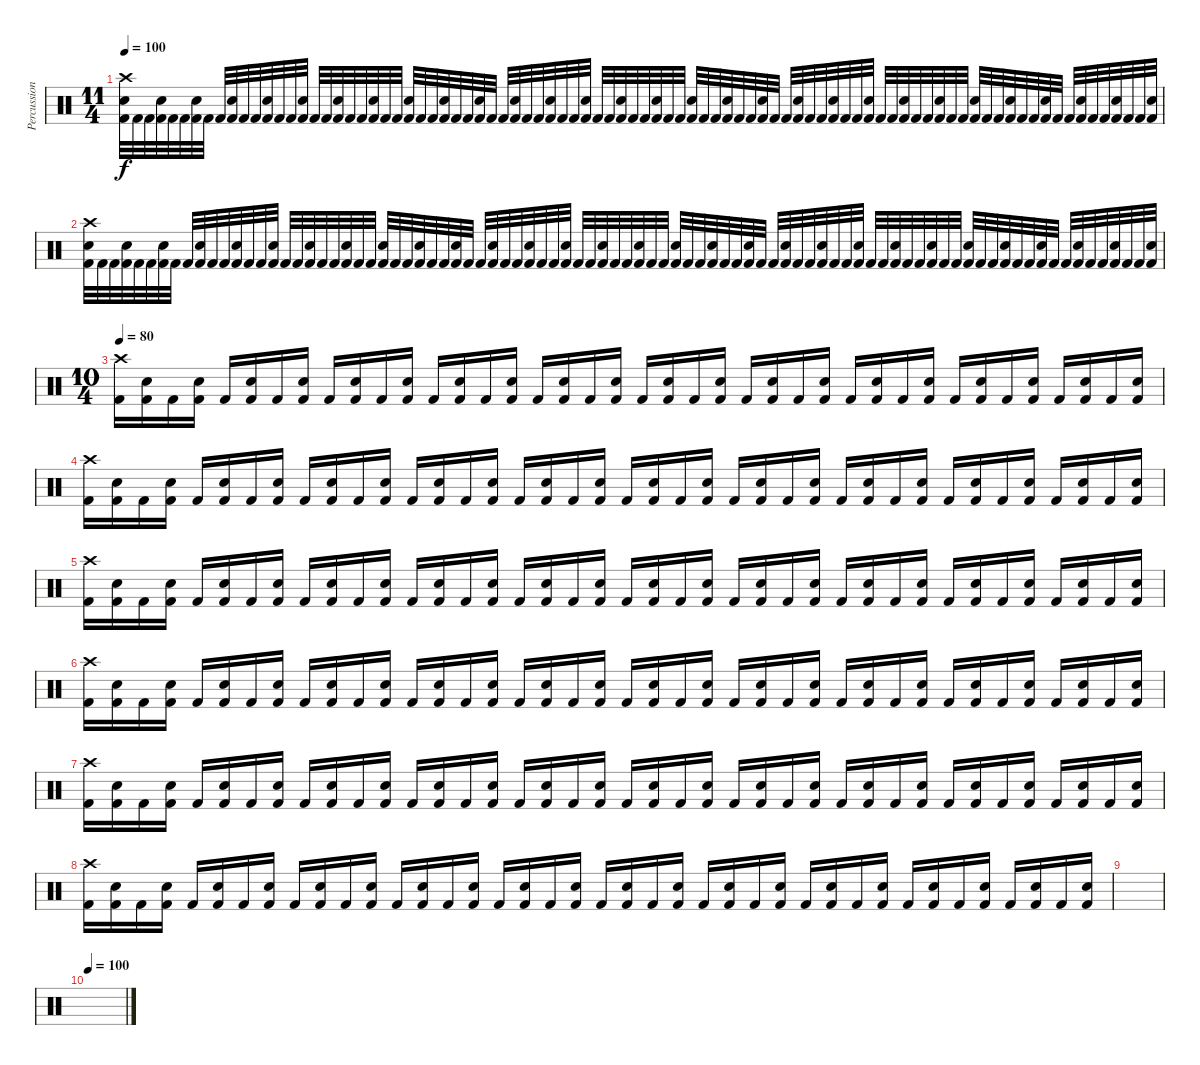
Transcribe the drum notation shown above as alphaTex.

\track ("Percussion" "Percussion") {instrument percussion}
\staff {score}
\articulation defaults
\ts (11 4)
\tempo 100
\clef neutral
\ks c
("Crash high (hit)" "Snare (hit) 2" "Kick (hit) 2").32{dy f} "Kick (hit) 2".32 "Kick (hit) 2".32 ("Snare (hit) 2" "Kick (hit) 2").32 "Kick (hit) 2".32 "Kick (hit) 2".32 ("Snare (hit) 2" "Kick (hit) 2").32 "Kick (hit) 2".32 "Kick (hit) 2".32 ("Snare (hit) 2" "Kick (hit) 2").32 "Kick (hit) 2".32 "Kick (hit) 2".32 ("Snare (hit) 2" "Kick (hit) 2").32 "Kick (hit) 2".32 "Kick (hit) 2".32 ("Snare (hit) 2" "Kick (hit) 2").32 "Kick (hit) 2".32 "Kick (hit) 2".32 ("Snare (hit) 2" "Kick (hit) 2").32 "Kick (hit) 2".32 "Kick (hit) 2".32 ("Snare (hit) 2" "Kick (hit) 2").32 "Kick (hit) 2".32 "Kick (hit) 2".32 ("Snare (hit) 2" "Kick (hit) 2").32 "Kick (hit) 2".32 "Kick (hit) 2".32 ("Snare (hit) 2" "Kick (hit) 2").32 "Kick (hit) 2".32 "Kick (hit) 2".32 ("Snare (hit) 2" "Kick (hit) 2").32 "Kick (hit) 2".32 "Kick (hit) 2".32 ("Snare (hit) 2" "Kick (hit) 2").32 "Kick (hit) 2".32 "Kick (hit) 2".32 ("Snare (hit) 2" "Kick (hit) 2").32 "Kick (hit) 2".32 "Kick (hit) 2".32 ("Snare (hit) 2" "Kick (hit) 2").32 "Kick (hit) 2".32 "Kick (hit) 2".32 ("Snare (hit) 2" "Kick (hit) 2").32 "Kick (hit) 2".32 "Kick (hit) 2".32 ("Snare (hit) 2" "Kick (hit) 2").32 "Kick (hit) 2".32 "Kick (hit) 2".32 ("Snare (hit) 2" "Kick (hit) 2").32 "Kick (hit) 2".32 "Kick (hit) 2".32 ("Snare (hit) 2" "Kick (hit) 2").32 "Kick (hit) 2".32 "Kick (hit) 2".32 ("Snare (hit) 2" "Kick (hit) 2").32 "Kick (hit) 2".32 "Kick (hit) 2".32 ("Snare (hit) 2" "Kick (hit) 2").32 "Kick (hit) 2".32 "Kick (hit) 2".32 ("Snare (hit) 2" "Kick (hit) 2").32 "Kick (hit) 2".32 "Kick (hit) 2".32 ("Snare (hit) 2" "Kick (hit) 2").32 "Kick (hit) 2".32 "Kick (hit) 2".32 ("Snare (hit) 2" "Kick (hit) 2").32 "Kick (hit) 2".32 "Kick (hit) 2".32 ("Snare (hit) 2" "Kick (hit) 2").32 "Kick (hit) 2".32 "Kick (hit) 2".32 ("Snare (hit) 2" "Kick (hit) 2").32 "Kick (hit) 2".32 "Kick (hit) 2".32 ("Snare (hit) 2" "Kick (hit) 2").32 "Kick (hit) 2".32 "Kick (hit) 2".32 ("Snare (hit) 2" "Kick (hit) 2").32 "Kick (hit) 2".32 "Kick (hit) 2".32 ("Snare (hit) 2" "Kick (hit) 2").32 "Kick (hit) 2".32 "Kick (hit) 2".32 ("Snare (hit) 2" "Kick (hit) 2").32 "Kick (hit) 2".32 "Kick (hit) 2".32 ("Snare (hit) 2" "Kick (hit) 2").32 |
("Crash high (hit)" "Snare (hit) 2" "Kick (hit) 2").32 "Kick (hit) 2".32 "Kick (hit) 2".32 ("Snare (hit) 2" "Kick (hit) 2").32 "Kick (hit) 2".32 "Kick (hit) 2".32 ("Snare (hit) 2" "Kick (hit) 2").32 "Kick (hit) 2".32 "Kick (hit) 2".32 ("Snare (hit) 2" "Kick (hit) 2").32 "Kick (hit) 2".32 "Kick (hit) 2".32 ("Snare (hit) 2" "Kick (hit) 2").32 "Kick (hit) 2".32 "Kick (hit) 2".32 ("Snare (hit) 2" "Kick (hit) 2").32 "Kick (hit) 2".32 "Kick (hit) 2".32 ("Snare (hit) 2" "Kick (hit) 2").32 "Kick (hit) 2".32 "Kick (hit) 2".32 ("Snare (hit) 2" "Kick (hit) 2").32 "Kick (hit) 2".32 "Kick (hit) 2".32 ("Snare (hit) 2" "Kick (hit) 2").32 "Kick (hit) 2".32 "Kick (hit) 2".32 ("Snare (hit) 2" "Kick (hit) 2").32 "Kick (hit) 2".32 "Kick (hit) 2".32 ("Snare (hit) 2" "Kick (hit) 2").32 "Kick (hit) 2".32 "Kick (hit) 2".32 ("Snare (hit) 2" "Kick (hit) 2").32 "Kick (hit) 2".32 "Kick (hit) 2".32 ("Snare (hit) 2" "Kick (hit) 2").32 "Kick (hit) 2".32 "Kick (hit) 2".32 ("Snare (hit) 2" "Kick (hit) 2").32 "Kick (hit) 2".32 "Kick (hit) 2".32 ("Snare (hit) 2" "Kick (hit) 2").32 "Kick (hit) 2".32 "Kick (hit) 2".32 ("Snare (hit) 2" "Kick (hit) 2").32 "Kick (hit) 2".32 "Kick (hit) 2".32 ("Snare (hit) 2" "Kick (hit) 2").32 "Kick (hit) 2".32 "Kick (hit) 2".32 ("Snare (hit) 2" "Kick (hit) 2").32 "Kick (hit) 2".32 "Kick (hit) 2".32 ("Snare (hit) 2" "Kick (hit) 2").32 "Kick (hit) 2".32 "Kick (hit) 2".32 ("Snare (hit) 2" "Kick (hit) 2").32 "Kick (hit) 2".32 "Kick (hit) 2".32 ("Snare (hit) 2" "Kick (hit) 2").32 "Kick (hit) 2".32 "Kick (hit) 2".32 ("Snare (hit) 2" "Kick (hit) 2").32 "Kick (hit) 2".32 "Kick (hit) 2".32 ("Snare (hit) 2" "Kick (hit) 2").32 "Kick (hit) 2".32 "Kick (hit) 2".32 ("Snare (hit) 2" "Kick (hit) 2").32 "Kick (hit) 2".32 "Kick (hit) 2".32 ("Snare (hit) 2" "Kick (hit) 2").32 "Kick (hit) 2".32 "Kick (hit) 2".32 ("Snare (hit) 2" "Kick (hit) 2").32 "Kick (hit) 2".32 "Kick (hit) 2".32 ("Snare (hit) 2" "Kick (hit) 2").32 "Kick (hit) 2".32 "Kick (hit) 2".32 ("Snare (hit) 2" "Kick (hit) 2").32 "Kick (hit) 2".32 "Kick (hit) 2".32 ("Snare (hit) 2" "Kick (hit) 2").32 "Kick (hit) 2".32 "Kick (hit) 2".32 ("Snare (hit) 2" "Kick (hit) 2").32 |
\ts (10 4)
\tempo 80
("Crash high (hit)" "Kick (hit) 2").16 ("Snare (hit) 2" "Kick (hit) 2").16 "Kick (hit) 2".16 ("Snare (hit) 2" "Kick (hit) 2").16 "Kick (hit) 2".16 ("Snare (hit) 2" "Kick (hit) 2").16 "Kick (hit) 2".16 ("Snare (hit) 2" "Kick (hit) 2").16 "Kick (hit) 2".16 ("Snare (hit) 2" "Kick (hit) 2").16 "Kick (hit) 2".16 ("Snare (hit) 2" "Kick (hit) 2").16 "Kick (hit) 2".16 ("Snare (hit) 2" "Kick (hit) 2").16 "Kick (hit) 2".16 ("Snare (hit) 2" "Kick (hit) 2").16 "Kick (hit) 2".16 ("Snare (hit) 2" "Kick (hit) 2").16 "Kick (hit) 2".16 ("Snare (hit) 2" "Kick (hit) 2").16 "Kick (hit) 2".16 ("Snare (hit) 2" "Kick (hit) 2").16 "Kick (hit) 2".16 ("Snare (hit) 2" "Kick (hit) 2").16 "Kick (hit) 2".16 ("Snare (hit) 2" "Kick (hit) 2").16 "Kick (hit) 2".16 ("Snare (hit) 2" "Kick (hit) 2").16 "Kick (hit) 2".16 ("Snare (hit) 2" "Kick (hit) 2").16 "Kick (hit) 2".16 ("Snare (hit) 2" "Kick (hit) 2").16 "Kick (hit) 2".16 ("Snare (hit) 2" "Kick (hit) 2").16 "Kick (hit) 2".16 ("Snare (hit) 2" "Kick (hit) 2").16 "Kick (hit) 2".16 ("Snare (hit) 2" "Kick (hit) 2").16 "Kick (hit) 2".16 ("Snare (hit) 2" "Kick (hit) 2").16 |
("Crash high (hit)" "Kick (hit) 2").16 ("Snare (hit) 2" "Kick (hit) 2").16 "Kick (hit) 2".16 ("Snare (hit) 2" "Kick (hit) 2").16 "Kick (hit) 2".16 ("Snare (hit) 2" "Kick (hit) 2").16 "Kick (hit) 2".16 ("Snare (hit) 2" "Kick (hit) 2").16 "Kick (hit) 2".16 ("Snare (hit) 2" "Kick (hit) 2").16 "Kick (hit) 2".16 ("Snare (hit) 2" "Kick (hit) 2").16 "Kick (hit) 2".16 ("Snare (hit) 2" "Kick (hit) 2").16 "Kick (hit) 2".16 ("Snare (hit) 2" "Kick (hit) 2").16 "Kick (hit) 2".16 ("Snare (hit) 2" "Kick (hit) 2").16 "Kick (hit) 2".16 ("Snare (hit) 2" "Kick (hit) 2").16 "Kick (hit) 2".16 ("Snare (hit) 2" "Kick (hit) 2").16 "Kick (hit) 2".16 ("Snare (hit) 2" "Kick (hit) 2").16 "Kick (hit) 2".16 ("Snare (hit) 2" "Kick (hit) 2").16 "Kick (hit) 2".16 ("Snare (hit) 2" "Kick (hit) 2").16 "Kick (hit) 2".16 ("Snare (hit) 2" "Kick (hit) 2").16 "Kick (hit) 2".16 ("Snare (hit) 2" "Kick (hit) 2").16 "Kick (hit) 2".16 ("Snare (hit) 2" "Kick (hit) 2").16 "Kick (hit) 2".16 ("Snare (hit) 2" "Kick (hit) 2").16 "Kick (hit) 2".16 ("Snare (hit) 2" "Kick (hit) 2").16 "Kick (hit) 2".16 ("Snare (hit) 2" "Kick (hit) 2").16 |
("Crash high (hit)" "Kick (hit) 2").16 ("Snare (hit) 2" "Kick (hit) 2").16 "Kick (hit) 2".16 ("Snare (hit) 2" "Kick (hit) 2").16 "Kick (hit) 2".16 ("Snare (hit) 2" "Kick (hit) 2").16 "Kick (hit) 2".16 ("Snare (hit) 2" "Kick (hit) 2").16 "Kick (hit) 2".16 ("Snare (hit) 2" "Kick (hit) 2").16 "Kick (hit) 2".16 ("Snare (hit) 2" "Kick (hit) 2").16 "Kick (hit) 2".16 ("Snare (hit) 2" "Kick (hit) 2").16 "Kick (hit) 2".16 ("Snare (hit) 2" "Kick (hit) 2").16 "Kick (hit) 2".16 ("Snare (hit) 2" "Kick (hit) 2").16 "Kick (hit) 2".16 ("Snare (hit) 2" "Kick (hit) 2").16 "Kick (hit) 2".16 ("Snare (hit) 2" "Kick (hit) 2").16 "Kick (hit) 2".16 ("Snare (hit) 2" "Kick (hit) 2").16 "Kick (hit) 2".16 ("Snare (hit) 2" "Kick (hit) 2").16 "Kick (hit) 2".16 ("Snare (hit) 2" "Kick (hit) 2").16 "Kick (hit) 2".16 ("Snare (hit) 2" "Kick (hit) 2").16 "Kick (hit) 2".16 ("Snare (hit) 2" "Kick (hit) 2").16 "Kick (hit) 2".16 ("Snare (hit) 2" "Kick (hit) 2").16 "Kick (hit) 2".16 ("Snare (hit) 2" "Kick (hit) 2").16 "Kick (hit) 2".16 ("Snare (hit) 2" "Kick (hit) 2").16 "Kick (hit) 2".16 ("Snare (hit) 2" "Kick (hit) 2").16 |
("Crash high (hit)" "Kick (hit) 2").16 ("Snare (hit) 2" "Kick (hit) 2").16 "Kick (hit) 2".16 ("Snare (hit) 2" "Kick (hit) 2").16 "Kick (hit) 2".16 ("Snare (hit) 2" "Kick (hit) 2").16 "Kick (hit) 2".16 ("Snare (hit) 2" "Kick (hit) 2").16 "Kick (hit) 2".16 ("Snare (hit) 2" "Kick (hit) 2").16 "Kick (hit) 2".16 ("Snare (hit) 2" "Kick (hit) 2").16 "Kick (hit) 2".16 ("Snare (hit) 2" "Kick (hit) 2").16 "Kick (hit) 2".16 ("Snare (hit) 2" "Kick (hit) 2").16 "Kick (hit) 2".16 ("Snare (hit) 2" "Kick (hit) 2").16 "Kick (hit) 2".16 ("Snare (hit) 2" "Kick (hit) 2").16 "Kick (hit) 2".16 ("Snare (hit) 2" "Kick (hit) 2").16 "Kick (hit) 2".16 ("Snare (hit) 2" "Kick (hit) 2").16 "Kick (hit) 2".16 ("Snare (hit) 2" "Kick (hit) 2").16 "Kick (hit) 2".16 ("Snare (hit) 2" "Kick (hit) 2").16 "Kick (hit) 2".16 ("Snare (hit) 2" "Kick (hit) 2").16 "Kick (hit) 2".16 ("Snare (hit) 2" "Kick (hit) 2").16 "Kick (hit) 2".16 ("Snare (hit) 2" "Kick (hit) 2").16 "Kick (hit) 2".16 ("Snare (hit) 2" "Kick (hit) 2").16 "Kick (hit) 2".16 ("Snare (hit) 2" "Kick (hit) 2").16 "Kick (hit) 2".16 ("Snare (hit) 2" "Kick (hit) 2").16 |
("Crash high (hit)" "Kick (hit) 2").16 ("Snare (hit) 2" "Kick (hit) 2").16 "Kick (hit) 2".16 ("Snare (hit) 2" "Kick (hit) 2").16 "Kick (hit) 2".16 ("Snare (hit) 2" "Kick (hit) 2").16 "Kick (hit) 2".16 ("Snare (hit) 2" "Kick (hit) 2").16 "Kick (hit) 2".16 ("Snare (hit) 2" "Kick (hit) 2").16 "Kick (hit) 2".16 ("Snare (hit) 2" "Kick (hit) 2").16 "Kick (hit) 2".16 ("Snare (hit) 2" "Kick (hit) 2").16 "Kick (hit) 2".16 ("Snare (hit) 2" "Kick (hit) 2").16 "Kick (hit) 2".16 ("Snare (hit) 2" "Kick (hit) 2").16 "Kick (hit) 2".16 ("Snare (hit) 2" "Kick (hit) 2").16 "Kick (hit) 2".16 ("Snare (hit) 2" "Kick (hit) 2").16 "Kick (hit) 2".16 ("Snare (hit) 2" "Kick (hit) 2").16 "Kick (hit) 2".16 ("Snare (hit) 2" "Kick (hit) 2").16 "Kick (hit) 2".16 ("Snare (hit) 2" "Kick (hit) 2").16 "Kick (hit) 2".16 ("Snare (hit) 2" "Kick (hit) 2").16 "Kick (hit) 2".16 ("Snare (hit) 2" "Kick (hit) 2").16 "Kick (hit) 2".16 ("Snare (hit) 2" "Kick (hit) 2").16 "Kick (hit) 2".16 ("Snare (hit) 2" "Kick (hit) 2").16 "Kick (hit) 2".16 ("Snare (hit) 2" "Kick (hit) 2").16 "Kick (hit) 2".16 ("Snare (hit) 2" "Kick (hit) 2").16 |
("Crash high (hit)" "Kick (hit) 2").16 ("Snare (hit) 2" "Kick (hit) 2").16 "Kick (hit) 2".16 ("Snare (hit) 2" "Kick (hit) 2").16 "Kick (hit) 2".16 ("Snare (hit) 2" "Kick (hit) 2").16 "Kick (hit) 2".16 ("Snare (hit) 2" "Kick (hit) 2").16 "Kick (hit) 2".16 ("Snare (hit) 2" "Kick (hit) 2").16 "Kick (hit) 2".16 ("Snare (hit) 2" "Kick (hit) 2").16 "Kick (hit) 2".16 ("Snare (hit) 2" "Kick (hit) 2").16 "Kick (hit) 2".16 ("Snare (hit) 2" "Kick (hit) 2").16 "Kick (hit) 2".16 ("Snare (hit) 2" "Kick (hit) 2").16 "Kick (hit) 2".16 ("Snare (hit) 2" "Kick (hit) 2").16 "Kick (hit) 2".16 ("Snare (hit) 2" "Kick (hit) 2").16 "Kick (hit) 2".16 ("Snare (hit) 2" "Kick (hit) 2").16 "Kick (hit) 2".16 ("Snare (hit) 2" "Kick (hit) 2").16 "Kick (hit) 2".16 ("Snare (hit) 2" "Kick (hit) 2").16 "Kick (hit) 2".16 ("Snare (hit) 2" "Kick (hit) 2").16 "Kick (hit) 2".16 ("Snare (hit) 2" "Kick (hit) 2").16 "Kick (hit) 2".16 ("Snare (hit) 2" "Kick (hit) 2").16 "Kick (hit) 2".16 ("Snare (hit) 2" "Kick (hit) 2").16 "Kick (hit) 2".16 ("Snare (hit) 2" "Kick (hit) 2").16 "Kick (hit) 2".16 ("Snare (hit) 2" "Kick (hit) 2").16 |
|
\tempo 100
